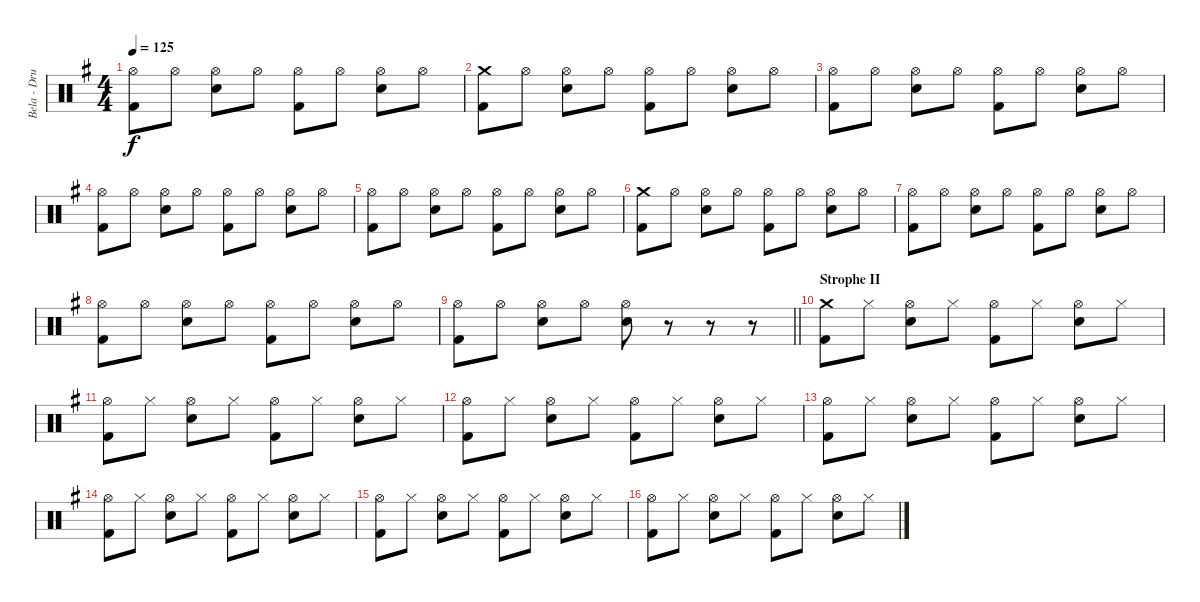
\track ("Bela - Drums" "Bela - Dru") {instrument percussion}
\staff {score}
\articulation defaults
\ts (4 4)
\tempo 125
\clef neutral
\ks g
("Hi-Hat (open)" "Kick (hit) 2").8{dy f} "Hi-Hat (open)".8 ("Hi-Hat (open)" "Snare (hit) 2").8 "Hi-Hat (open)".8 ("Hi-Hat (open)" "Kick (hit) 2").8 "Hi-Hat (open)".8 ("Hi-Hat (open)" "Snare (hit) 2").8 "Hi-Hat (open)".8 |
("Crash medium (hit)" "Kick (hit) 2").8 "Hi-Hat (open)".8 ("Hi-Hat (open)" "Snare (hit) 2").8 "Hi-Hat (open)".8 ("Hi-Hat (open)" "Kick (hit) 2").8 "Hi-Hat (open)".8 ("Hi-Hat (open)" "Snare (hit) 2").8 "Hi-Hat (open)".8 |
("Hi-Hat (open)" "Kick (hit) 2").8 "Hi-Hat (open)".8 ("Hi-Hat (open)" "Snare (hit) 2").8 "Hi-Hat (open)".8 ("Hi-Hat (open)" "Kick (hit) 2").8 "Hi-Hat (open)".8 ("Hi-Hat (open)" "Snare (hit) 2").8 "Hi-Hat (open)".8 |
("Hi-Hat (open)" "Kick (hit) 2").8 "Hi-Hat (open)".8 ("Hi-Hat (open)" "Snare (hit) 2").8 "Hi-Hat (open)".8 ("Hi-Hat (open)" "Kick (hit) 2").8 "Hi-Hat (open)".8 ("Hi-Hat (open)" "Snare (hit) 2").8 "Hi-Hat (open)".8 |
("Hi-Hat (open)" "Kick (hit) 2").8 "Hi-Hat (open)".8 ("Hi-Hat (open)" "Snare (hit) 2").8 "Hi-Hat (open)".8 ("Hi-Hat (open)" "Kick (hit) 2").8 "Hi-Hat (open)".8 ("Hi-Hat (open)" "Snare (hit) 2").8 "Hi-Hat (open)".8 |
("Crash medium (hit)" "Kick (hit) 2").8 "Hi-Hat (open)".8 ("Hi-Hat (open)" "Snare (hit) 2").8 "Hi-Hat (open)".8 ("Hi-Hat (open)" "Kick (hit) 2").8 "Hi-Hat (open)".8 ("Hi-Hat (open)" "Snare (hit) 2").8 "Hi-Hat (open)".8 |
("Hi-Hat (open)" "Kick (hit) 2").8 "Hi-Hat (open)".8 ("Hi-Hat (open)" "Snare (hit) 2").8 "Hi-Hat (open)".8 ("Hi-Hat (open)" "Kick (hit) 2").8 "Hi-Hat (open)".8 ("Hi-Hat (open)" "Snare (hit) 2").8 "Hi-Hat (open)".8 |
("Hi-Hat (open)" "Kick (hit) 2").8 "Hi-Hat (open)".8 ("Hi-Hat (open)" "Snare (hit) 2").8 "Hi-Hat (open)".8 ("Hi-Hat (open)" "Kick (hit) 2").8 "Hi-Hat (open)".8 ("Hi-Hat (open)" "Snare (hit) 2").8 "Hi-Hat (open)".8 |
\barLineRight lightlight
("Hi-Hat (open)" "Kick (hit) 2").8 "Hi-Hat (open)".8 ("Hi-Hat (open)" "Snare (hit) 2").8 "Hi-Hat (open)".8 ("Hi-Hat (open)" "Snare (hit) 2").8 r.8 r.8 r.8 |
\section ("" "Strophe II")
("Crash medium (hit)" "Kick (hit) 2").8 "Hi-Hat (closed)".8 ("Hi-Hat (open)" "Snare (hit) 2").8 "Hi-Hat (closed)".8 ("Hi-Hat (open)" "Kick (hit) 2").8 "Hi-Hat (closed)".8 ("Hi-Hat (open)" "Snare (hit) 2").8 "Hi-Hat (closed)".8 |
("Hi-Hat (open)" "Kick (hit) 2").8 "Hi-Hat (closed)".8 ("Hi-Hat (open)" "Snare (hit) 2").8 "Hi-Hat (closed)".8 ("Hi-Hat (open)" "Kick (hit) 2").8 "Hi-Hat (closed)".8 ("Hi-Hat (open)" "Snare (hit) 2").8 "Hi-Hat (closed)".8 |
("Hi-Hat (open)" "Kick (hit) 2").8 "Hi-Hat (closed)".8 ("Hi-Hat (open)" "Snare (hit) 2").8 "Hi-Hat (closed)".8 ("Hi-Hat (open)" "Kick (hit) 2").8 "Hi-Hat (closed)".8 ("Hi-Hat (open)" "Snare (hit) 2").8 "Hi-Hat (closed)".8 |
("Hi-Hat (open)" "Kick (hit) 2").8 "Hi-Hat (closed)".8 ("Hi-Hat (open)" "Snare (hit) 2").8 "Hi-Hat (closed)".8 ("Hi-Hat (open)" "Kick (hit) 2").8 "Hi-Hat (closed)".8 ("Hi-Hat (open)" "Snare (hit) 2").8 "Hi-Hat (closed)".8 |
("Hi-Hat (open)" "Kick (hit) 2").8 "Hi-Hat (closed)".8 ("Hi-Hat (open)" "Snare (hit) 2").8 "Hi-Hat (closed)".8 ("Hi-Hat (open)" "Kick (hit) 2").8 "Hi-Hat (closed)".8 ("Hi-Hat (open)" "Snare (hit) 2").8 "Hi-Hat (closed)".8 |
("Hi-Hat (open)" "Kick (hit) 2").8 "Hi-Hat (closed)".8 ("Hi-Hat (open)" "Snare (hit) 2").8 "Hi-Hat (closed)".8 ("Hi-Hat (open)" "Kick (hit) 2").8 "Hi-Hat (closed)".8 ("Hi-Hat (open)" "Snare (hit) 2").8 "Hi-Hat (closed)".8 |
("Hi-Hat (open)" "Kick (hit) 2").8 "Hi-Hat (closed)".8 ("Hi-Hat (open)" "Snare (hit) 2").8 "Hi-Hat (closed)".8 ("Hi-Hat (open)" "Kick (hit) 2").8 "Hi-Hat (closed)".8 ("Hi-Hat (open)" "Snare (hit) 2").8 "Hi-Hat (closed)".8
